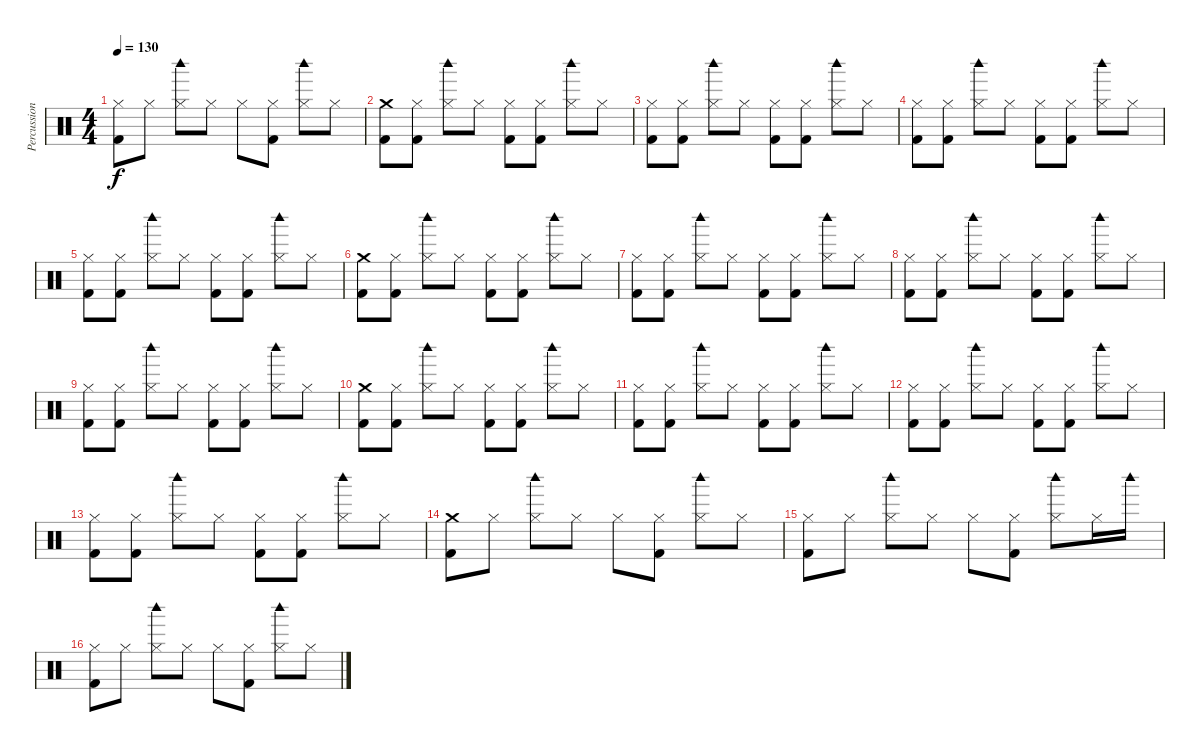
\track ("Percussion" "Percussion") {instrument percussion}
\staff {score}
\articulation defaults
\ts (4 4)
\tempo 130
\clef neutral
\ks c
("Hi-Hat (closed)" "Kick (hit) 2").8{dy f} "Hi-Hat (closed)".8 ("Hi-Hat (closed)" "Woodblock high (hit)").8 "Hi-Hat (closed)".8 "Hi-Hat (closed)".8 ("Hi-Hat (closed)" "Kick (hit) 2").8 ("Hi-Hat (closed)" "Woodblock high (hit)").8 "Hi-Hat (closed)".8 |
("Crash medium (hit)" "Kick (hit) 2").8 ("Hi-Hat (closed)" "Kick (hit) 2").8 ("Hi-Hat (closed)" "Woodblock high (hit)").8 "Hi-Hat (closed)".8 ("Hi-Hat (closed)" "Kick (hit) 2").8 ("Hi-Hat (closed)" "Kick (hit) 2").8 ("Hi-Hat (closed)" "Woodblock high (hit)").8 "Hi-Hat (closed)".8 |
("Hi-Hat (closed)" "Kick (hit) 2").8 ("Hi-Hat (closed)" "Kick (hit) 2").8 ("Hi-Hat (closed)" "Woodblock high (hit)").8 "Hi-Hat (closed)".8 ("Hi-Hat (closed)" "Kick (hit) 2").8 ("Hi-Hat (closed)" "Kick (hit) 2").8 ("Hi-Hat (closed)" "Woodblock high (hit)").8 "Hi-Hat (closed)".8 |
("Hi-Hat (closed)" "Kick (hit) 2").8 ("Hi-Hat (closed)" "Kick (hit) 2").8 ("Hi-Hat (closed)" "Woodblock high (hit)").8 "Hi-Hat (closed)".8 ("Hi-Hat (closed)" "Kick (hit) 2").8 ("Hi-Hat (closed)" "Kick (hit) 2").8 ("Hi-Hat (closed)" "Woodblock high (hit)").8 "Hi-Hat (closed)".8 |
("Hi-Hat (closed)" "Kick (hit) 2").8 ("Hi-Hat (closed)" "Kick (hit) 2").8 ("Hi-Hat (closed)" "Woodblock high (hit)").8 "Hi-Hat (closed)".8 ("Hi-Hat (closed)" "Kick (hit) 2").8 ("Hi-Hat (closed)" "Kick (hit) 2").8 ("Hi-Hat (closed)" "Woodblock high (hit)").8 "Hi-Hat (closed)".8 |
("Crash medium (hit)" "Kick (hit) 2").8 ("Hi-Hat (closed)" "Kick (hit) 2").8 ("Hi-Hat (closed)" "Woodblock high (hit)").8 "Hi-Hat (closed)".8 ("Hi-Hat (closed)" "Kick (hit) 2").8 ("Hi-Hat (closed)" "Kick (hit) 2").8 ("Hi-Hat (closed)" "Woodblock high (hit)").8 "Hi-Hat (closed)".8 |
("Hi-Hat (closed)" "Kick (hit) 2").8 ("Hi-Hat (closed)" "Kick (hit) 2").8 ("Hi-Hat (closed)" "Woodblock high (hit)").8 "Hi-Hat (closed)".8 ("Hi-Hat (closed)" "Kick (hit) 2").8 ("Hi-Hat (closed)" "Kick (hit) 2").8 ("Hi-Hat (closed)" "Woodblock high (hit)").8 "Hi-Hat (closed)".8 |
("Hi-Hat (closed)" "Kick (hit) 2").8 ("Hi-Hat (closed)" "Kick (hit) 2").8 ("Hi-Hat (closed)" "Woodblock high (hit)").8 "Hi-Hat (closed)".8 ("Hi-Hat (closed)" "Kick (hit) 2").8 ("Hi-Hat (closed)" "Kick (hit) 2").8 ("Hi-Hat (closed)" "Woodblock high (hit)").8 "Hi-Hat (closed)".8 |
("Hi-Hat (closed)" "Kick (hit) 2").8 ("Hi-Hat (closed)" "Kick (hit) 2").8 ("Hi-Hat (closed)" "Woodblock high (hit)").8 "Hi-Hat (closed)".8 ("Hi-Hat (closed)" "Kick (hit) 2").8 ("Hi-Hat (closed)" "Kick (hit) 2").8 ("Hi-Hat (closed)" "Woodblock high (hit)").8 "Hi-Hat (closed)".8 |
("Crash medium (hit)" "Kick (hit) 2").8 ("Hi-Hat (closed)" "Kick (hit) 2").8 ("Hi-Hat (closed)" "Woodblock high (hit)").8 "Hi-Hat (closed)".8 ("Hi-Hat (closed)" "Kick (hit) 2").8 ("Hi-Hat (closed)" "Kick (hit) 2").8 ("Hi-Hat (closed)" "Woodblock high (hit)").8 "Hi-Hat (closed)".8 |
("Hi-Hat (closed)" "Kick (hit) 2").8 ("Hi-Hat (closed)" "Kick (hit) 2").8 ("Hi-Hat (closed)" "Woodblock high (hit)").8 "Hi-Hat (closed)".8 ("Hi-Hat (closed)" "Kick (hit) 2").8 ("Hi-Hat (closed)" "Kick (hit) 2").8 ("Hi-Hat (closed)" "Woodblock high (hit)").8 "Hi-Hat (closed)".8 |
("Hi-Hat (closed)" "Kick (hit) 2").8 ("Hi-Hat (closed)" "Kick (hit) 2").8 ("Hi-Hat (closed)" "Woodblock high (hit)").8 "Hi-Hat (closed)".8 ("Hi-Hat (closed)" "Kick (hit) 2").8 ("Hi-Hat (closed)" "Kick (hit) 2").8 ("Hi-Hat (closed)" "Woodblock high (hit)").8 "Hi-Hat (closed)".8 |
("Hi-Hat (closed)" "Kick (hit) 2").8 ("Hi-Hat (closed)" "Kick (hit) 2").8 ("Hi-Hat (closed)" "Woodblock high (hit)").8 "Hi-Hat (closed)".8 ("Hi-Hat (closed)" "Kick (hit) 2").8 ("Hi-Hat (closed)" "Kick (hit) 2").8 ("Hi-Hat (closed)" "Woodblock high (hit)").8 "Hi-Hat (closed)".8 |
("Crash medium (hit)" "Kick (hit) 2").8 "Hi-Hat (closed)".8 ("Hi-Hat (closed)" "Woodblock high (hit)").8 "Hi-Hat (closed)".8 "Hi-Hat (closed)".8 ("Hi-Hat (closed)" "Kick (hit) 2").8 ("Hi-Hat (closed)" "Woodblock high (hit)").8 "Hi-Hat (closed)".8 |
("Hi-Hat (closed)" "Kick (hit) 2").8 "Hi-Hat (closed)".8 ("Hi-Hat (closed)" "Woodblock high (hit)").8 "Hi-Hat (closed)".8 "Hi-Hat (closed)".8 ("Hi-Hat (closed)" "Kick (hit) 2").8 ("Hi-Hat (closed)" "Woodblock high (hit)").8 "Hi-Hat (closed)".16 "Woodblock high (hit)".16 |
("Hi-Hat (closed)" "Kick (hit) 2").8 "Hi-Hat (closed)".8 ("Hi-Hat (closed)" "Woodblock high (hit)").8 "Hi-Hat (closed)".8 "Hi-Hat (closed)".8 ("Hi-Hat (closed)" "Kick (hit) 2").8 ("Hi-Hat (closed)" "Woodblock high (hit)").8 "Hi-Hat (closed)".8
